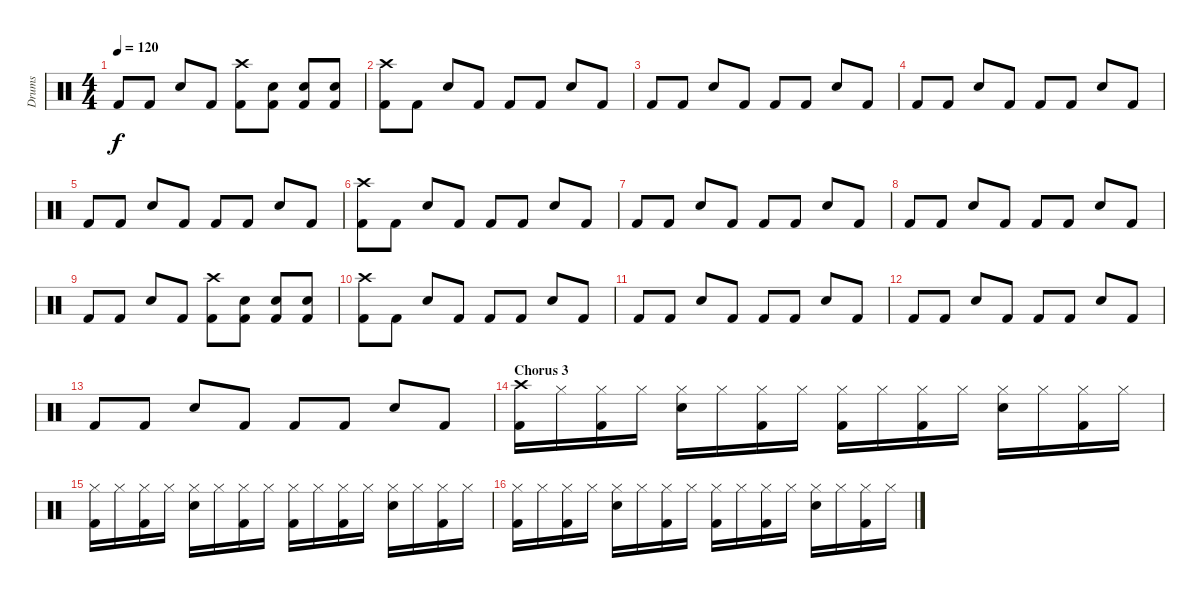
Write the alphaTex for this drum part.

\track ("Drums" "Drums") {instrument percussion}
\staff {score}
\articulation defaults
\ts (4 4)
\tempo 120
\clef neutral
\ks c "Kick (hit) 2".8{dy f} "Kick (hit) 2".8 "Snare (hit) 2".8 "Kick (hit) 2".8
("Crash high (hit)" "Kick (hit) 2").8 ("Snare (hit) 2" "Kick (hit) 2").8 ("Snare (hit) 2" "Kick (hit) 2").8 ("Snare (hit) 2" "Kick (hit) 2").8 |
("Crash high (hit)" "Kick (hit) 2").8 "Kick (hit) 2".8 "Snare (hit) 2".8 "Kick (hit) 2".8 "Kick (hit) 2".8 "Kick (hit) 2".8 "Snare (hit) 2".8 "Kick (hit) 2".8 |
"Kick (hit) 2".8 "Kick (hit) 2".8 "Snare (hit) 2".8 "Kick (hit) 2".8 "Kick (hit) 2".8 "Kick (hit) 2".8 "Snare (hit) 2".8 "Kick (hit) 2".8 |
"Kick (hit) 2".8 "Kick (hit) 2".8 "Snare (hit) 2".8 "Kick (hit) 2".8 "Kick (hit) 2".8 "Kick (hit) 2".8 "Snare (hit) 2".8 "Kick (hit) 2".8 |
"Kick (hit) 2".8 "Kick (hit) 2".8 "Snare (hit) 2".8 "Kick (hit) 2".8 "Kick (hit) 2".8 "Kick (hit) 2".8 "Snare (hit) 2".8 "Kick (hit) 2".8 |
("Crash high (hit)" "Kick (hit) 2").8 "Kick (hit) 2".8 "Snare (hit) 2".8 "Kick (hit) 2".8 "Kick (hit) 2".8 "Kick (hit) 2".8 "Snare (hit) 2".8 "Kick (hit) 2".8 |
"Kick (hit) 2".8 "Kick (hit) 2".8 "Snare (hit) 2".8 "Kick (hit) 2".8 "Kick (hit) 2".8 "Kick (hit) 2".8 "Snare (hit) 2".8 "Kick (hit) 2".8 |
"Kick (hit) 2".8 "Kick (hit) 2".8 "Snare (hit) 2".8 "Kick (hit) 2".8 "Kick (hit) 2".8 "Kick (hit) 2".8 "Snare (hit) 2".8 "Kick (hit) 2".8 |
"Kick (hit) 2".8 "Kick (hit) 2".8 "Snare (hit) 2".8 "Kick (hit) 2".8 ("Crash high (hit)" "Kick (hit) 2").8 ("Snare (hit) 2" "Kick (hit) 2").8 ("Snare (hit) 2" "Kick (hit) 2").8 ("Snare (hit) 2" "Kick (hit) 2").8 |
("Crash high (hit)" "Kick (hit) 2").8 "Kick (hit) 2".8 "Snare (hit) 2".8 "Kick (hit) 2".8 "Kick (hit) 2".8 "Kick (hit) 2".8 "Snare (hit) 2".8 "Kick (hit) 2".8 |
"Kick (hit) 2".8 "Kick (hit) 2".8 "Snare (hit) 2".8 "Kick (hit) 2".8 "Kick (hit) 2".8 "Kick (hit) 2".8 "Snare (hit) 2".8 "Kick (hit) 2".8 |
"Kick (hit) 2".8 "Kick (hit) 2".8 "Snare (hit) 2".8 "Kick (hit) 2".8 "Kick (hit) 2".8 "Kick (hit) 2".8 "Snare (hit) 2".8 "Kick (hit) 2".8 |
"Kick (hit) 2".8 "Kick (hit) 2".8 "Snare (hit) 2".8 "Kick (hit) 2".8 "Kick (hit) 2".8 "Kick (hit) 2".8 "Snare (hit) 2".8 "Kick (hit) 2".8 |
\section ("" "Chorus 3")
("Crash high (hit)" "Kick (hit) 2").16 "Hi-Hat (closed)".16 ("Hi-Hat (closed)" "Kick (hit) 2").16 "Hi-Hat (closed)".16 ("Hi-Hat (closed)" "Snare (hit) 2").16 "Hi-Hat (closed)".16 ("Hi-Hat (closed)" "Kick (hit) 2").16 "Hi-Hat (closed)".16 ("Hi-Hat (closed)" "Kick (hit) 2").16 "Hi-Hat (closed)".16 ("Hi-Hat (closed)" "Kick (hit) 2").16 "Hi-Hat (closed)".16 ("Hi-Hat (closed)" "Snare (hit) 2").16 "Hi-Hat (closed)".16 ("Hi-Hat (closed)" "Kick (hit) 2").16 "Hi-Hat (closed)".16 |
("Hi-Hat (closed)" "Kick (hit) 2").16 "Hi-Hat (closed)".16 ("Hi-Hat (closed)" "Kick (hit) 2").16 "Hi-Hat (closed)".16 ("Hi-Hat (closed)" "Snare (hit) 2").16 "Hi-Hat (closed)".16 ("Hi-Hat (closed)" "Kick (hit) 2").16 "Hi-Hat (closed)".16 ("Hi-Hat (closed)" "Kick (hit) 2").16 "Hi-Hat (closed)".16 ("Hi-Hat (closed)" "Kick (hit) 2").16 "Hi-Hat (closed)".16 ("Hi-Hat (closed)" "Snare (hit) 2").16 "Hi-Hat (closed)".16 ("Hi-Hat (closed)" "Kick (hit) 2").16 "Hi-Hat (closed)".16 |
("Hi-Hat (closed)" "Kick (hit) 2").16 "Hi-Hat (closed)".16 ("Hi-Hat (closed)" "Kick (hit) 2").16 "Hi-Hat (closed)".16 ("Hi-Hat (closed)" "Snare (hit) 2").16 "Hi-Hat (closed)".16 ("Hi-Hat (closed)" "Kick (hit) 2").16 "Hi-Hat (closed)".16 ("Hi-Hat (closed)" "Kick (hit) 2").16 "Hi-Hat (closed)".16 ("Hi-Hat (closed)" "Kick (hit) 2").16 "Hi-Hat (closed)".16 ("Hi-Hat (closed)" "Snare (hit) 2").16 "Hi-Hat (closed)".16 ("Hi-Hat (closed)" "Kick (hit) 2").16 "Hi-Hat (closed)".16
